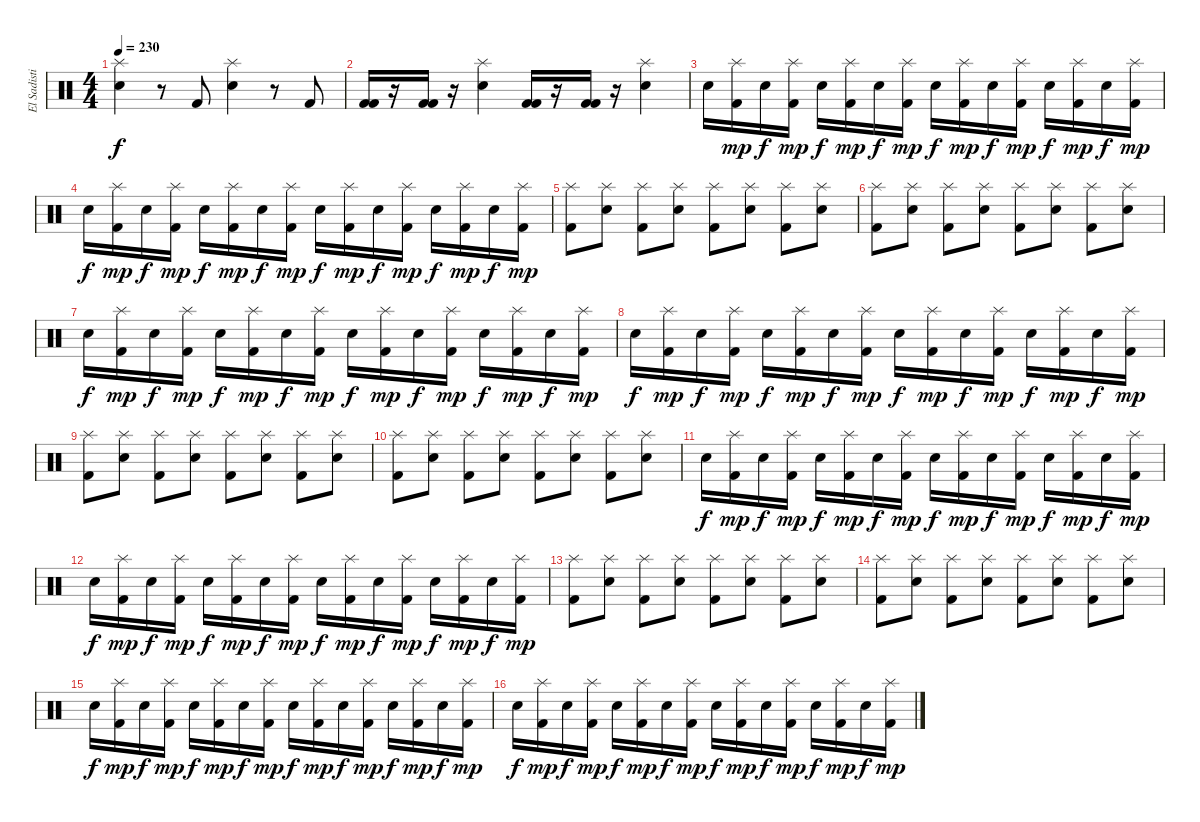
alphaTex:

\track ("El Sadistico" "El Sadisti") {instrument percussion}
\staff {score}
\articulation defaults
\ts (4 4)
\tempo 230
\clef neutral
\ks c
("Splash (hit)" "Electric Snare (hit)").4{dy f} r.8 "Kick (hit) 2".8 ("Splash (hit)" "Electric Snare (hit)").4 r.8 "Kick (hit) 2".8 |
("Kick (hit) 2" "Kick (hit) 2").16 r.16 ("Kick (hit) 2" "Kick (hit) 2").16 r.16 ("Splash (hit)" "Snare (hit) 2").4 ("Kick (hit) 2" "Kick (hit) 2").16 r.16 ("Kick (hit) 2" "Kick (hit) 2").16 r.16 ("Splash (hit)" "Snare (hit) 2").4 |
"Electric Snare (hit)".16 ("Splash (hit)" "Kick (hit) 2").16{dy mp} "Electric Snare (hit)".16{dy f} ("Splash (hit)" "Kick (hit) 2").16{dy mp} "Electric Snare (hit)".16{dy f} ("Splash (hit)" "Kick (hit) 2").16{dy mp} "Electric Snare (hit)".16{dy f} ("Splash (hit)" "Kick (hit) 2").16{dy mp} "Electric Snare (hit)".16{dy f} ("Splash (hit)" "Kick (hit) 2").16{dy mp} "Electric Snare (hit)".16{dy f} ("Splash (hit)" "Kick (hit) 2").16{dy mp} "Electric Snare (hit)".16{dy f} ("Splash (hit)" "Kick (hit) 2").16{dy mp} "Electric Snare (hit)".16{dy f} ("Splash (hit)" "Kick (hit) 2").16{dy mp} |
"Electric Snare (hit)".16{dy f} ("Splash (hit)" "Kick (hit) 2").16{dy mp} "Electric Snare (hit)".16{dy f} ("Splash (hit)" "Kick (hit) 2").16{dy mp} "Electric Snare (hit)".16{dy f} ("Splash (hit)" "Kick (hit) 2").16{dy mp} "Electric Snare (hit)".16{dy f} ("Splash (hit)" "Kick (hit) 2").16{dy mp} "Electric Snare (hit)".16{dy f} ("Splash (hit)" "Kick (hit) 2").16{dy mp} "Electric Snare (hit)".16{dy f} ("Splash (hit)" "Kick (hit) 2").16{dy mp} "Electric Snare (hit)".16{dy f} ("Splash (hit)" "Kick (hit) 2").16{dy mp} "Electric Snare (hit)".16{dy f} ("Splash (hit)" "Kick (hit) 2").16{dy mp} |
("Splash (hit)" "Kick (hit) 2").8 ("Splash (hit)" "Electric Snare (hit)").8 ("Splash (hit)" "Kick (hit) 2").8 ("Splash (hit)" "Electric Snare (hit)").8 ("Splash (hit)" "Kick (hit) 2").8 ("Splash (hit)" "Electric Snare (hit)").8 ("Splash (hit)" "Kick (hit) 2").8 ("Splash (hit)" "Electric Snare (hit)").8 |
("Splash (hit)" "Kick (hit) 2").8 ("Splash (hit)" "Electric Snare (hit)").8 ("Splash (hit)" "Kick (hit) 2").8 ("Splash (hit)" "Electric Snare (hit)").8 ("Splash (hit)" "Kick (hit) 2").8 ("Splash (hit)" "Electric Snare (hit)").8 ("Splash (hit)" "Kick (hit) 2").8 ("Splash (hit)" "Electric Snare (hit)").8 |
"Electric Snare (hit)".16{dy f} ("Splash (hit)" "Kick (hit) 2").16{dy mp} "Electric Snare (hit)".16{dy f} ("Splash (hit)" "Kick (hit) 2").16{dy mp} "Electric Snare (hit)".16{dy f} ("Splash (hit)" "Kick (hit) 2").16{dy mp} "Electric Snare (hit)".16{dy f} ("Splash (hit)" "Kick (hit) 2").16{dy mp} "Electric Snare (hit)".16{dy f} ("Splash (hit)" "Kick (hit) 2").16{dy mp} "Electric Snare (hit)".16{dy f} ("Splash (hit)" "Kick (hit) 2").16{dy mp} "Electric Snare (hit)".16{dy f} ("Splash (hit)" "Kick (hit) 2").16{dy mp} "Electric Snare (hit)".16{dy f} ("Splash (hit)" "Kick (hit) 2").16{dy mp} |
"Electric Snare (hit)".16{dy f} ("Splash (hit)" "Kick (hit) 2").16{dy mp} "Electric Snare (hit)".16{dy f} ("Splash (hit)" "Kick (hit) 2").16{dy mp} "Electric Snare (hit)".16{dy f} ("Splash (hit)" "Kick (hit) 2").16{dy mp} "Electric Snare (hit)".16{dy f} ("Splash (hit)" "Kick (hit) 2").16{dy mp} "Electric Snare (hit)".16{dy f} ("Splash (hit)" "Kick (hit) 2").16{dy mp} "Electric Snare (hit)".16{dy f} ("Splash (hit)" "Kick (hit) 2").16{dy mp} "Electric Snare (hit)".16{dy f} ("Splash (hit)" "Kick (hit) 2").16{dy mp} "Electric Snare (hit)".16{dy f} ("Splash (hit)" "Kick (hit) 2").16{dy mp} |
("Splash (hit)" "Kick (hit) 2").8 ("Splash (hit)" "Electric Snare (hit)").8 ("Splash (hit)" "Kick (hit) 2").8 ("Splash (hit)" "Electric Snare (hit)").8 ("Splash (hit)" "Kick (hit) 2").8 ("Splash (hit)" "Electric Snare (hit)").8 ("Splash (hit)" "Kick (hit) 2").8 ("Splash (hit)" "Electric Snare (hit)").8 |
("Splash (hit)" "Kick (hit) 2").8 ("Splash (hit)" "Electric Snare (hit)").8 ("Splash (hit)" "Kick (hit) 2").8 ("Splash (hit)" "Electric Snare (hit)").8 ("Splash (hit)" "Kick (hit) 2").8 ("Splash (hit)" "Electric Snare (hit)").8 ("Splash (hit)" "Kick (hit) 2").8 ("Splash (hit)" "Electric Snare (hit)").8 |
"Electric Snare (hit)".16{dy f} ("Splash (hit)" "Kick (hit) 2").16{dy mp} "Electric Snare (hit)".16{dy f} ("Splash (hit)" "Kick (hit) 2").16{dy mp} "Electric Snare (hit)".16{dy f} ("Splash (hit)" "Kick (hit) 2").16{dy mp} "Electric Snare (hit)".16{dy f} ("Splash (hit)" "Kick (hit) 2").16{dy mp} "Electric Snare (hit)".16{dy f} ("Splash (hit)" "Kick (hit) 2").16{dy mp} "Electric Snare (hit)".16{dy f} ("Splash (hit)" "Kick (hit) 2").16{dy mp} "Electric Snare (hit)".16{dy f} ("Splash (hit)" "Kick (hit) 2").16{dy mp} "Electric Snare (hit)".16{dy f} ("Splash (hit)" "Kick (hit) 2").16{dy mp} |
"Electric Snare (hit)".16{dy f} ("Splash (hit)" "Kick (hit) 2").16{dy mp} "Electric Snare (hit)".16{dy f} ("Splash (hit)" "Kick (hit) 2").16{dy mp} "Electric Snare (hit)".16{dy f} ("Splash (hit)" "Kick (hit) 2").16{dy mp} "Electric Snare (hit)".16{dy f} ("Splash (hit)" "Kick (hit) 2").16{dy mp} "Electric Snare (hit)".16{dy f} ("Splash (hit)" "Kick (hit) 2").16{dy mp} "Electric Snare (hit)".16{dy f} ("Splash (hit)" "Kick (hit) 2").16{dy mp} "Electric Snare (hit)".16{dy f} ("Splash (hit)" "Kick (hit) 2").16{dy mp} "Electric Snare (hit)".16{dy f} ("Splash (hit)" "Kick (hit) 2").16{dy mp} |
("Splash (hit)" "Kick (hit) 2").8 ("Splash (hit)" "Electric Snare (hit)").8 ("Splash (hit)" "Kick (hit) 2").8 ("Splash (hit)" "Electric Snare (hit)").8 ("Splash (hit)" "Kick (hit) 2").8 ("Splash (hit)" "Electric Snare (hit)").8 ("Splash (hit)" "Kick (hit) 2").8 ("Splash (hit)" "Electric Snare (hit)").8 |
("Splash (hit)" "Kick (hit) 2").8 ("Splash (hit)" "Electric Snare (hit)").8 ("Splash (hit)" "Kick (hit) 2").8 ("Splash (hit)" "Electric Snare (hit)").8 ("Splash (hit)" "Kick (hit) 2").8 ("Splash (hit)" "Electric Snare (hit)").8 ("Splash (hit)" "Kick (hit) 2").8 ("Splash (hit)" "Electric Snare (hit)").8 |
"Electric Snare (hit)".16{dy f} ("Splash (hit)" "Kick (hit) 2").16{dy mp} "Electric Snare (hit)".16{dy f} ("Splash (hit)" "Kick (hit) 2").16{dy mp} "Electric Snare (hit)".16{dy f} ("Splash (hit)" "Kick (hit) 2").16{dy mp} "Electric Snare (hit)".16{dy f} ("Splash (hit)" "Kick (hit) 2").16{dy mp} "Electric Snare (hit)".16{dy f} ("Splash (hit)" "Kick (hit) 2").16{dy mp} "Electric Snare (hit)".16{dy f} ("Splash (hit)" "Kick (hit) 2").16{dy mp} "Electric Snare (hit)".16{dy f} ("Splash (hit)" "Kick (hit) 2").16{dy mp} "Electric Snare (hit)".16{dy f} ("Splash (hit)" "Kick (hit) 2").16{dy mp} |
"Electric Snare (hit)".16{dy f} ("Splash (hit)" "Kick (hit) 2").16{dy mp} "Electric Snare (hit)".16{dy f} ("Splash (hit)" "Kick (hit) 2").16{dy mp} "Electric Snare (hit)".16{dy f} ("Splash (hit)" "Kick (hit) 2").16{dy mp} "Electric Snare (hit)".16{dy f} ("Splash (hit)" "Kick (hit) 2").16{dy mp} "Electric Snare (hit)".16{dy f} ("Splash (hit)" "Kick (hit) 2").16{dy mp} "Electric Snare (hit)".16{dy f} ("Splash (hit)" "Kick (hit) 2").16{dy mp} "Electric Snare (hit)".16{dy f} ("Splash (hit)" "Kick (hit) 2").16{dy mp} "Electric Snare (hit)".16{dy f} ("Splash (hit)" "Kick (hit) 2").16{dy mp}
